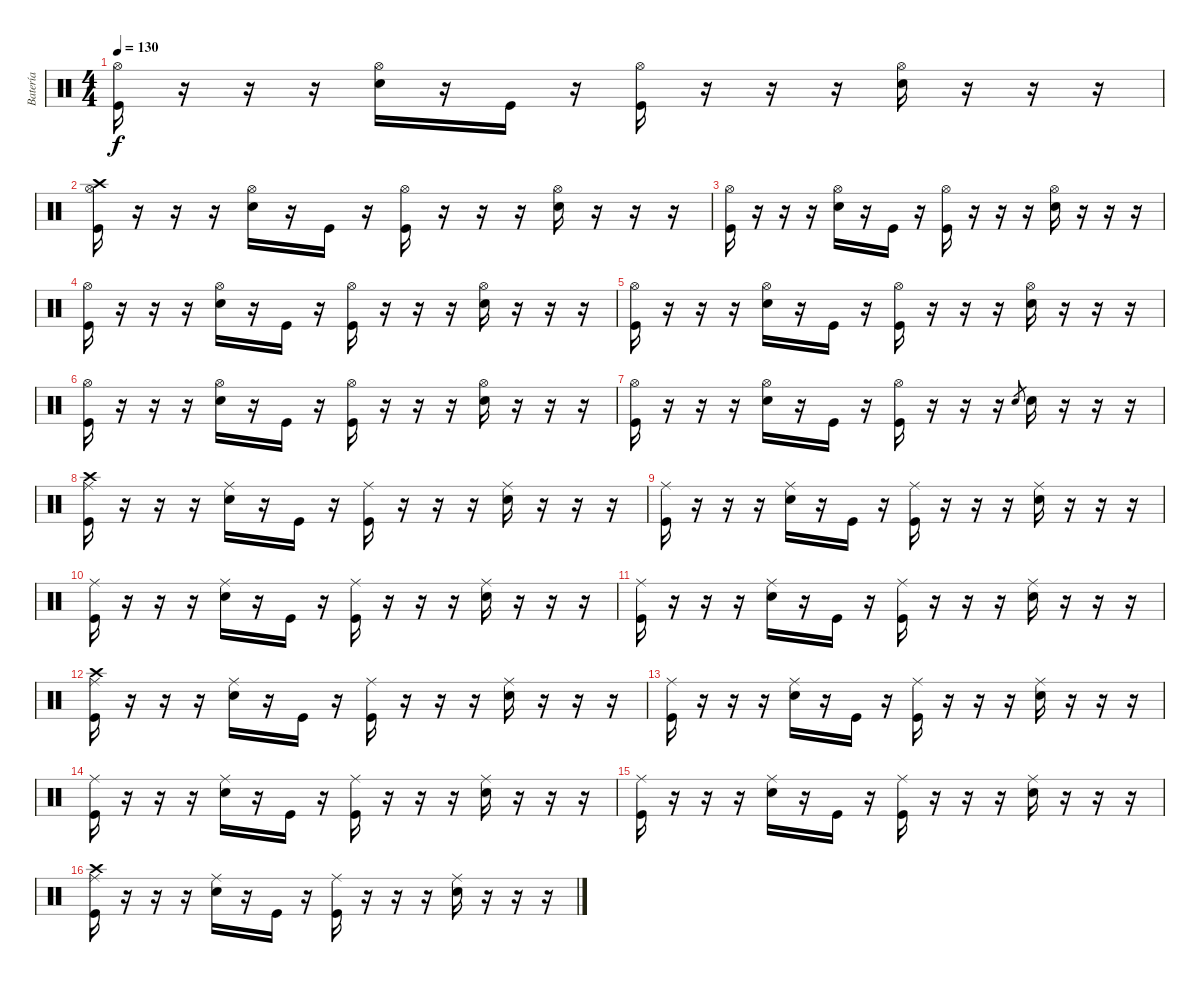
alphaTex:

\track ("Batería" "Batería") {instrument percussion}
\staff {score}
\articulation defaults
\ts (4 4)
\tempo 130
\clef neutral
\ks c
("Hi-Hat (open)" "Kick (hit)").16{dy f} r.16 r.16 r.16 ("Hi-Hat (open)" "Snare (hit) 2").16 r.16 "Kick (hit)".16 r.16 ("Hi-Hat (open)" "Kick (hit)").16 r.16 r.16 r.16 ("Hi-Hat (open)" "Snare (hit) 2").16 r.16 r.16 r.16 |
("Crash high (hit)" "Hi-Hat (open)" "Kick (hit)").16 r.16 r.16 r.16 ("Hi-Hat (open)" "Snare (hit) 2").16 r.16 "Kick (hit)".16 r.16 ("Hi-Hat (open)" "Kick (hit)").16 r.16 r.16 r.16 ("Hi-Hat (open)" "Snare (hit) 2").16 r.16 r.16 r.16 |
("Hi-Hat (open)" "Kick (hit)").16 r.16 r.16 r.16 ("Hi-Hat (open)" "Snare (hit) 2").16 r.16 "Kick (hit)".16 r.16 ("Hi-Hat (open)" "Kick (hit)").16 r.16 r.16 r.16 ("Hi-Hat (open)" "Snare (hit) 2").16 r.16 r.16 r.16 |
("Hi-Hat (open)" "Kick (hit)").16 r.16 r.16 r.16 ("Hi-Hat (open)" "Snare (hit) 2").16 r.16 "Kick (hit)".16 r.16 ("Hi-Hat (open)" "Kick (hit)").16 r.16 r.16 r.16 ("Hi-Hat (open)" "Snare (hit) 2").16 r.16 r.16 r.16 |
("Hi-Hat (open)" "Kick (hit)").16 r.16 r.16 r.16 ("Hi-Hat (open)" "Snare (hit) 2").16 r.16 "Kick (hit)".16 r.16 ("Hi-Hat (open)" "Kick (hit)").16 r.16 r.16 r.16 ("Hi-Hat (open)" "Snare (hit) 2").16 r.16 r.16 r.16 |
("Hi-Hat (open)" "Kick (hit)").16 r.16 r.16 r.16 ("Hi-Hat (open)" "Snare (hit) 2").16 r.16 "Kick (hit)".16 r.16 ("Hi-Hat (open)" "Kick (hit)").16 r.16 r.16 r.16 ("Hi-Hat (open)" "Snare (hit) 2").16 r.16 r.16 r.16 |
("Hi-Hat (open)" "Kick (hit)").16 r.16 r.16 r.16 ("Hi-Hat (open)" "Snare (hit) 2").16 r.16 "Kick (hit)".16 r.16 ("Hi-Hat (open)" "Kick (hit)").16 r.16 r.16 r.16 "Snare (hit) 2".8{gr} "Snare (hit) 2".16 r.16 r.16 r.16 |
("Crash high (hit)" "Ride (middle)" "Kick (hit)").16 r.16 r.16 r.16 ("Ride (middle)" "Snare (hit) 2").16 r.16 "Kick (hit)".16 r.16 ("Ride (middle)" "Kick (hit)").16 r.16 r.16 r.16 ("Ride (middle)" "Snare (hit) 2").16 r.16 r.16 r.16 |
("Ride (middle)" "Kick (hit)").16 r.16 r.16 r.16 ("Ride (middle)" "Snare (hit) 2").16 r.16 "Kick (hit)".16 r.16 ("Ride (middle)" "Kick (hit)").16 r.16 r.16 r.16 ("Ride (middle)" "Snare (hit) 2").16 r.16 r.16 r.16 |
("Ride (middle)" "Kick (hit)").16 r.16 r.16 r.16 ("Ride (middle)" "Snare (hit) 2").16 r.16 "Kick (hit)".16 r.16 ("Ride (middle)" "Kick (hit)").16 r.16 r.16 r.16 ("Ride (middle)" "Snare (hit) 2").16 r.16 r.16 r.16 |
("Ride (middle)" "Kick (hit)").16 r.16 r.16 r.16 ("Ride (middle)" "Snare (hit) 2").16 r.16 "Kick (hit)".16 r.16 ("Ride (middle)" "Kick (hit)").16 r.16 r.16 r.16 ("Ride (middle)" "Snare (hit) 2").16 r.16 r.16 r.16 |
("Crash high (hit)" "Ride (middle)" "Kick (hit)").16 r.16 r.16 r.16 ("Ride (middle)" "Snare (hit) 2").16 r.16 "Kick (hit)".16 r.16 ("Ride (middle)" "Kick (hit)").16 r.16 r.16 r.16 ("Ride (middle)" "Snare (hit) 2").16 r.16 r.16 r.16 |
("Ride (middle)" "Kick (hit)").16 r.16 r.16 r.16 ("Ride (middle)" "Snare (hit) 2").16 r.16 "Kick (hit)".16 r.16 ("Ride (middle)" "Kick (hit)").16 r.16 r.16 r.16 ("Ride (middle)" "Snare (hit) 2").16 r.16 r.16 r.16 |
("Ride (middle)" "Kick (hit)").16 r.16 r.16 r.16 ("Ride (middle)" "Snare (hit) 2").16 r.16 "Kick (hit)".16 r.16 ("Ride (middle)" "Kick (hit)").16 r.16 r.16 r.16 ("Ride (middle)" "Snare (hit) 2").16 r.16 r.16 r.16 |
("Ride (middle)" "Kick (hit)").16 r.16 r.16 r.16 ("Ride (middle)" "Snare (hit) 2").16 r.16 "Kick (hit)".16 r.16 ("Ride (middle)" "Kick (hit)").16 r.16 r.16 r.16 ("Ride (middle)" "Snare (hit) 2").16 r.16 r.16 r.16 |
("Crash high (hit)" "Ride (middle)" "Kick (hit)").16 r.16 r.16 r.16 ("Ride (middle)" "Snare (hit) 2").16 r.16 "Kick (hit)".16 r.16 ("Ride (middle)" "Kick (hit)").16 r.16 r.16 r.16 ("Ride (middle)" "Snare (hit) 2").16 r.16 r.16 r.16
